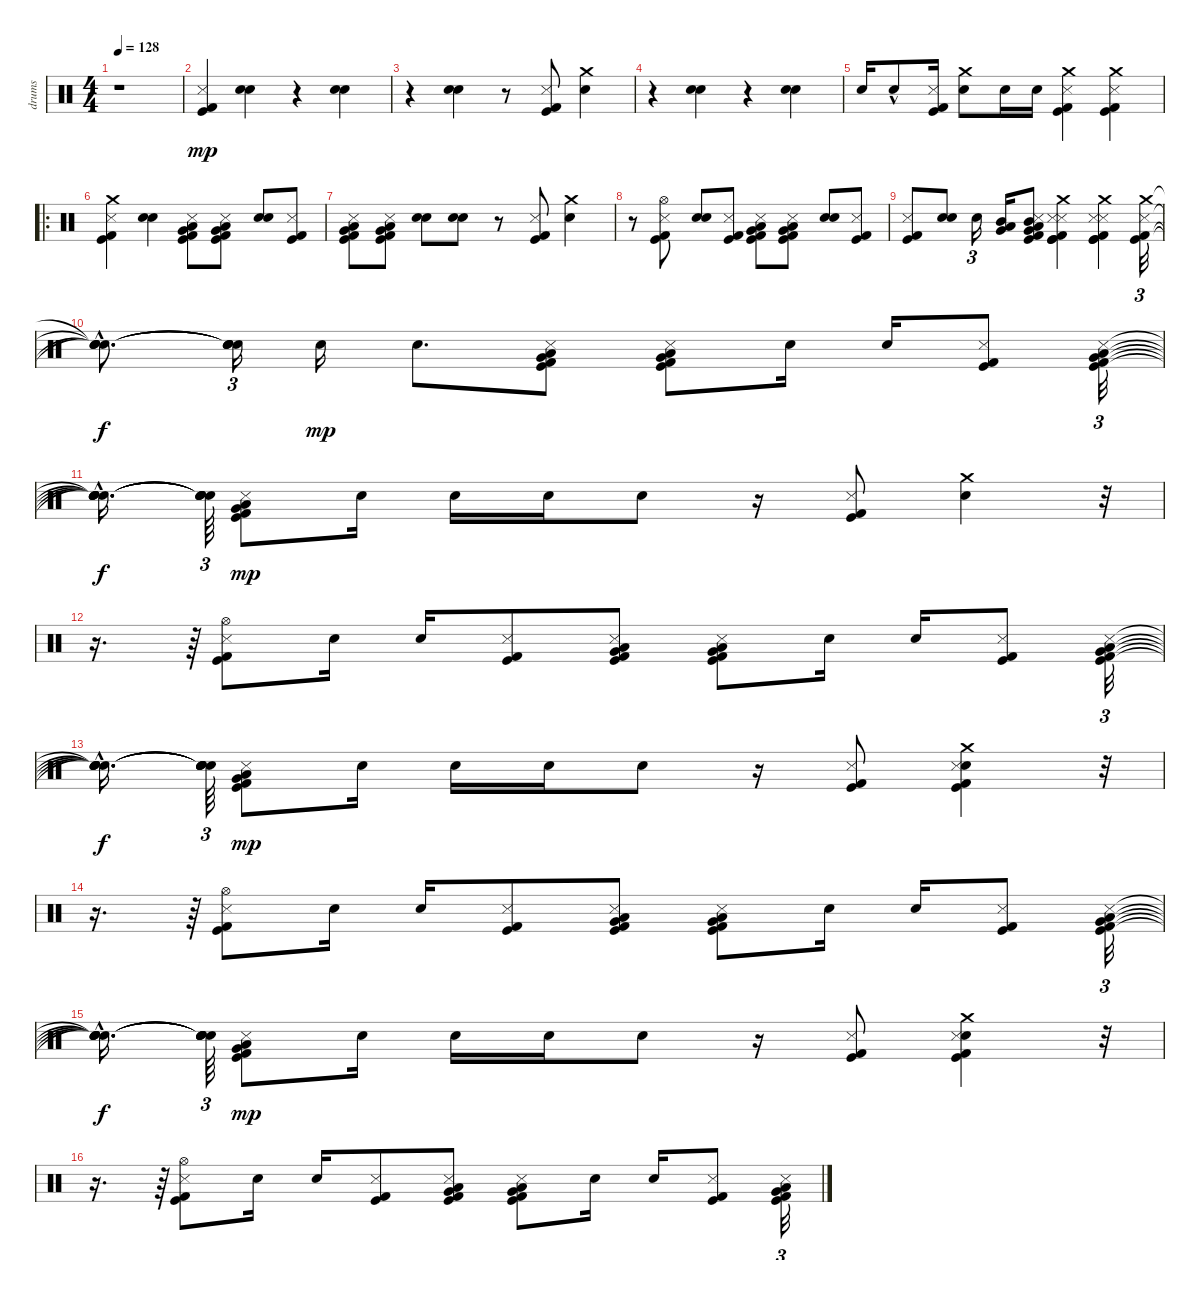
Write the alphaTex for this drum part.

\track ("drums" "drums") {instrument percussion}
\staff {score}
\articulation defaults
\ts (4 4)
\tempo 128
\clef neutral
\ks c
r.1{dy mp} |
("Metronome (hit)" "Kick (hit)" "Kick (hit) 2").4 ("Snare (hit) 2" "Snare (hit) 2").4 r.4 ("Snare (hit) 2" "Snare (hit) 2").4 |
r.4 ("Snare (hit) 2" "Snare (hit) 2").4 r.8 ("Metronome (hit)" "Kick (hit)" "Kick (hit) 2").8 ("Snare (hit) 2" "Crash medium (hit)").4 |
r.4 ("Snare (hit) 2" "Snare (hit) 2").4 r.4 ("Snare (hit) 2" "Snare (hit) 2").4 |
"Snare (hit) 2".16 "Snare (hit) 2"{hac}.8 ("Metronome (hit)" "Kick (hit)" "Kick (hit) 2").16 ("Snare (hit) 2" "Crash medium (hit)").8 "Snare (hit) 2".16 "Snare (hit) 2".16 ("Crash medium (hit)" "Metronome (hit)" "Kick (hit)" "Kick (hit) 2").4 ("Crash medium (hit)" "Metronome (hit)" "Kick (hit)" "Kick (hit) 2").4 |
\ro
("Crash medium (hit)" "Metronome (hit)" "Kick (hit)" "Kick (hit) 2").4 ("Snare (hit) 2" "Snare (hit) 2").4 ("Very Low Tom (hit)" "Low Tom (hit)" "Metronome (hit)" "Kick (hit)" "Kick (hit) 2").8 ("Very Low Tom (hit)" "Low Tom (hit)" "Metronome (hit)" "Kick (hit)" "Kick (hit) 2").8 ("Snare (hit) 2" "Snare (hit) 2").8 ("Metronome (hit)" "Kick (hit)" "Kick (hit) 2").8 |
("Very Low Tom (hit)" "Low Tom (hit)" "Metronome (hit)" "Kick (hit)" "Kick (hit) 2").8 ("Very Low Tom (hit)" "Low Tom (hit)" "Metronome (hit)" "Kick (hit)" "Kick (hit) 2").8 ("Snare (hit) 2" "Snare (hit) 2").8 ("Snare (hit) 2" "Snare (hit) 2").8 r.8 ("Metronome (hit)" "Kick (hit)" "Kick (hit) 2").8 ("Snare (hit) 2" "Crash medium (hit)").4 |
r.8 ("Hi-Hat (open)" "Metronome (hit)" "Kick (hit)" "Kick (hit) 2").8 ("Snare (hit) 2" "Snare (hit) 2").8 ("Metronome (hit)" "Kick (hit)" "Kick (hit) 2").8 ("Very Low Tom (hit)" "Low Tom (hit)" "Metronome (hit)" "Kick (hit)" "Kick (hit) 2").8 ("Very Low Tom (hit)" "Low Tom (hit)" "Metronome (hit)" "Kick (hit)" "Kick (hit) 2").8 ("Snare (hit) 2" "Snare (hit) 2").8 ("Metronome (hit)" "Kick (hit)" "Kick (hit) 2").8 |
("Metronome (hit)" "Kick (hit)" "Kick (hit) 2").8 ("Snare (hit) 2" "Snare (hit) 2").8 "Snare (hit) 2".16{tu (3 2)} ("Very Low Tom (hit)" "Low Tom (hit)" "Mid Tom (hit)").16 ("Very Low Tom (hit)" "Low Tom (hit)" "Mid Tom (hit)" "Metronome (hit)" "Kick (hit)" "Kick (hit) 2").8 ("Metronome (hit)" "Kick (hit)" "Kick (hit) 2" "Crash medium (hit)" "Metronome (hit)" "Kick (hit)").4 ("Metronome (hit)" "Kick (hit)" "Kick (hit) 2" "Crash medium (hit)" "Metronome (hit)" "Kick (hit)").4 ("Crash medium (hit)" "Metronome (hit)" "Kick (hit)" "Kick (hit) 2").32{tu (3 2)} |
("Snare (hit)"{hac t} "Snare (hit)"{hac t} "Snare (hit)"{hac t} "Snare (hit)"{hac t}).8{d dy f} ("Snare (hit)"{t} "Snare (hit)"{t} "Snare (hit)"{t} "Snare (hit)"{t}).16{tu (3 2)} "Snare (hit) 2".16{dy mp} "Snare (hit) 2".8{d} ("Very Low Tom (hit)" "Low Tom (hit)" "Metronome (hit)" "Kick (hit)" "Kick (hit) 2").8 ("Very Low Tom (hit)" "Low Tom (hit)" "Metronome (hit)" "Kick (hit)" "Kick (hit) 2").8 "Snare (hit) 2".16 "Snare (hit) 2".16 ("Metronome (hit)" "Kick (hit)" "Kick (hit) 2").8 ("Very Low Tom (hit)" "Low Tom (hit)" "Metronome (hit)" "Kick (hit)" "Kick (hit) 2").32{tu (3 2)} |
("Snare (hit)"{hac t} "Snare (hit)"{hac t} "Snare (hit)"{hac t} "Snare (hit)"{hac t} "Snare (hit)"{hac t}).16{d dy f} ("Snare (hit)"{t} "Snare (hit)"{t} "Snare (hit)"{t} "Snare (hit)"{t} "Snare (hit)"{t}).64{tu (3 2)} ("Very Low Tom (hit)" "Low Tom (hit)" "Metronome (hit)" "Kick (hit)" "Kick (hit) 2").8{dy mp} "Snare (hit) 2".16 "Snare (hit) 2".16 "Snare (hit) 2".16 "Snare (hit) 2".8 r.16 ("Metronome (hit)" "Kick (hit)" "Kick (hit) 2").8 ("Snare (hit) 2" "Crash medium (hit)").4 r.32{tu (3 2)} |
r.16{d} r.64{tu (3 2)} ("Hi-Hat (open)" "Metronome (hit)" "Kick (hit)" "Kick (hit) 2").8 "Snare (hit) 2".16 "Snare (hit) 2".16 ("Metronome (hit)" "Kick (hit)" "Kick (hit) 2").8 ("Very Low Tom (hit)" "Low Tom (hit)" "Metronome (hit)" "Kick (hit)" "Kick (hit) 2").8 ("Very Low Tom (hit)" "Low Tom (hit)" "Metronome (hit)" "Kick (hit)" "Kick (hit) 2").8 "Snare (hit) 2".16 "Snare (hit) 2".16 ("Metronome (hit)" "Kick (hit)" "Kick (hit) 2").8 ("Very Low Tom (hit)" "Low Tom (hit)" "Metronome (hit)" "Kick (hit)" "Kick (hit) 2").32{tu (3 2)} |
("Snare (hit)"{hac t} "Snare (hit)"{hac t} "Snare (hit)"{hac t} "Snare (hit)"{hac t} "Snare (hit)"{hac t}).16{d dy f} ("Snare (hit)"{t} "Snare (hit)"{t} "Snare (hit)"{t} "Snare (hit)"{t} "Snare (hit)"{t}).64{tu (3 2)} ("Very Low Tom (hit)" "Low Tom (hit)" "Metronome (hit)" "Kick (hit)" "Kick (hit) 2").8{dy mp} "Snare (hit) 2".16 "Snare (hit) 2".16 "Snare (hit) 2".16 "Snare (hit) 2".8 r.16 ("Metronome (hit)" "Kick (hit)" "Kick (hit) 2").8 ("Snare (hit) 2" "Crash medium (hit)" "Metronome (hit)" "Kick (hit)" "Kick (hit) 2").4 r.32{tu (3 2)} |
r.16{d} r.64{tu (3 2)} ("Hi-Hat (open)" "Metronome (hit)" "Kick (hit)" "Kick (hit) 2").8 "Snare (hit) 2".16 "Snare (hit) 2".16 ("Metronome (hit)" "Kick (hit)" "Kick (hit) 2").8 ("Very Low Tom (hit)" "Low Tom (hit)" "Metronome (hit)" "Kick (hit)" "Kick (hit) 2").8 ("Very Low Tom (hit)" "Low Tom (hit)" "Metronome (hit)" "Kick (hit)" "Kick (hit) 2").8 "Snare (hit) 2".16 "Snare (hit) 2".16 ("Metronome (hit)" "Kick (hit)" "Kick (hit) 2").8 ("Very Low Tom (hit)" "Low Tom (hit)" "Metronome (hit)" "Kick (hit)" "Kick (hit) 2").32{tu (3 2)} |
("Snare (hit)"{hac t} "Snare (hit)"{hac t} "Snare (hit)"{hac t} "Snare (hit)"{hac t} "Snare (hit)"{hac t}).16{d dy f} ("Snare (hit)"{t} "Snare (hit)"{t} "Snare (hit)"{t} "Snare (hit)"{t} "Snare (hit)"{t}).64{tu (3 2)} ("Very Low Tom (hit)" "Low Tom (hit)" "Metronome (hit)" "Kick (hit)" "Kick (hit) 2").8{dy mp} "Snare (hit) 2".16 "Snare (hit) 2".16 "Snare (hit) 2".16 "Snare (hit) 2".8 r.16 ("Metronome (hit)" "Kick (hit)" "Kick (hit) 2").8 ("Snare (hit) 2" "Crash medium (hit)" "Metronome (hit)" "Kick (hit)" "Kick (hit) 2").4 r.32{tu (3 2)} |
r.16{d} r.64{tu (3 2)} ("Hi-Hat (open)" "Metronome (hit)" "Kick (hit)" "Kick (hit) 2").8 "Snare (hit) 2".16 "Snare (hit) 2".16 ("Metronome (hit)" "Kick (hit)" "Kick (hit) 2").8 ("Very Low Tom (hit)" "Low Tom (hit)" "Metronome (hit)" "Kick (hit)" "Kick (hit) 2").8 ("Very Low Tom (hit)" "Low Tom (hit)" "Metronome (hit)" "Kick (hit)" "Kick (hit) 2").8 "Snare (hit) 2".16 "Snare (hit) 2".16 ("Metronome (hit)" "Kick (hit)" "Kick (hit) 2").8 ("Very Low Tom (hit)" "Low Tom (hit)" "Metronome (hit)" "Kick (hit)" "Kick (hit) 2").32{tu (3 2)}
